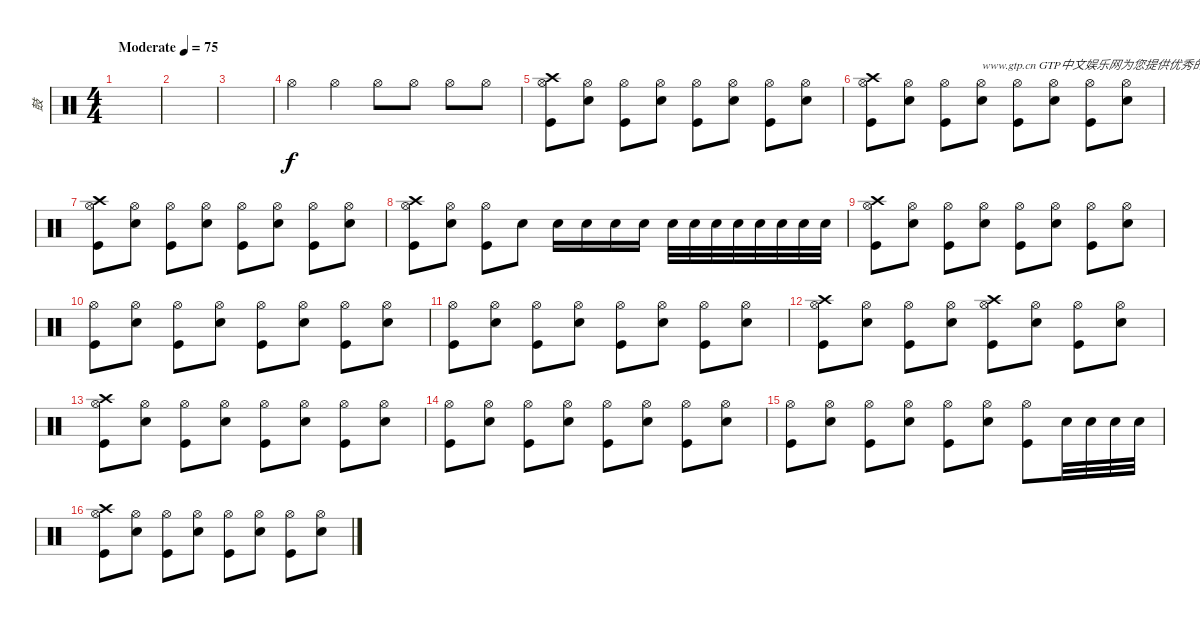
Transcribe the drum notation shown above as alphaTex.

\track ("鼓" "鼓") {instrument percussion}
\staff {score}
\articulation defaults
\ts (4 4)
\tempo (75 "Moderate")
\clef neutral
\ks c
|
|
|
"Hi-Hat (open)".4 "Hi-Hat (open)".4 "Hi-Hat (open)".8 "Hi-Hat (open)".8 "Hi-Hat (open)".8 "Hi-Hat (open)".8 |
("Crash high (hit)" "Hi-Hat (open)" "Kick (hit)").8 ("Hi-Hat (open)" "Electric Snare (hit)").8 ("Hi-Hat (open)" "Kick (hit)").8 ("Hi-Hat (open)" "Electric Snare (hit)").8 ("Hi-Hat (open)" "Kick (hit)").8 ("Hi-Hat (open)" "Electric Snare (hit)").8 ("Hi-Hat (open)" "Kick (hit)").8 ("Hi-Hat (open)" "Electric Snare (hit)").8 |
("Crash high (hit)" "Hi-Hat (open)" "Kick (hit)").8 ("Hi-Hat (open)" "Electric Snare (hit)").8 ("Hi-Hat (open)" "Kick (hit)").8 ("Hi-Hat (open)" "Electric Snare (hit)").8{txt "www.gtp.cn GTP中文娱乐网为您提供优秀的谱子"} ("Hi-Hat (open)" "Kick (hit)").8 ("Hi-Hat (open)" "Electric Snare (hit)").8 ("Hi-Hat (open)" "Kick (hit)").8 ("Hi-Hat (open)" "Electric Snare (hit)").8 |
("Crash high (hit)" "Hi-Hat (open)" "Kick (hit)").8 ("Hi-Hat (open)" "Electric Snare (hit)").8 ("Hi-Hat (open)" "Kick (hit)").8 ("Hi-Hat (open)" "Electric Snare (hit)").8 ("Hi-Hat (open)" "Kick (hit)").8 ("Hi-Hat (open)" "Electric Snare (hit)").8 ("Hi-Hat (open)" "Kick (hit)").8 ("Hi-Hat (open)" "Electric Snare (hit)").8 |
("Crash high (hit)" "Hi-Hat (open)" "Kick (hit)").8 ("Hi-Hat (open)" "Electric Snare (hit)").8 ("Hi-Hat (open)" "Kick (hit)").8 "Electric Snare (hit)".8 "Electric Snare (hit)".16 "Electric Snare (hit)".16 "Electric Snare (hit)".16 "Electric Snare (hit)".16 "Electric Snare (hit)".32 "Electric Snare (hit)".32 "Electric Snare (hit)".32 "Electric Snare (hit)".32 "Electric Snare (hit)".32 "Electric Snare (hit)".32 "Electric Snare (hit)".32 "Electric Snare (hit)".32 |
("Crash high (hit)" "Hi-Hat (open)" "Kick (hit)").8 ("Hi-Hat (open)" "Electric Snare (hit)").8 ("Hi-Hat (open)" "Kick (hit)").8 ("Hi-Hat (open)" "Electric Snare (hit)").8 ("Hi-Hat (open)" "Kick (hit)").8 ("Hi-Hat (open)" "Electric Snare (hit)").8 ("Hi-Hat (open)" "Kick (hit)").8 ("Hi-Hat (open)" "Electric Snare (hit)").8 |
("Hi-Hat (open)" "Kick (hit)").8 ("Hi-Hat (open)" "Electric Snare (hit)").8 ("Hi-Hat (open)" "Kick (hit)").8 ("Hi-Hat (open)" "Electric Snare (hit)").8 ("Hi-Hat (open)" "Kick (hit)").8 ("Hi-Hat (open)" "Electric Snare (hit)").8 ("Hi-Hat (open)" "Kick (hit)").8 ("Hi-Hat (open)" "Electric Snare (hit)").8 |
("Hi-Hat (open)" "Kick (hit)").8 ("Hi-Hat (open)" "Electric Snare (hit)").8 ("Hi-Hat (open)" "Kick (hit)").8 ("Hi-Hat (open)" "Electric Snare (hit)").8 ("Hi-Hat (open)" "Kick (hit)").8 ("Hi-Hat (open)" "Electric Snare (hit)").8 ("Hi-Hat (open)" "Kick (hit)").8 ("Hi-Hat (open)" "Electric Snare (hit)").8 |
("Crash high (hit)" "Hi-Hat (open)" "Kick (hit)").8 ("Hi-Hat (open)" "Electric Snare (hit)").8 ("Hi-Hat (open)" "Kick (hit)").8 ("Hi-Hat (open)" "Electric Snare (hit)").8 ("Crash high (hit)" "Hi-Hat (open)" "Kick (hit)").8 ("Hi-Hat (open)" "Electric Snare (hit)").8 ("Hi-Hat (open)" "Kick (hit)").8 ("Hi-Hat (open)" "Electric Snare (hit)").8 |
("Crash high (hit)" "Hi-Hat (open)" "Kick (hit)").8 ("Hi-Hat (open)" "Electric Snare (hit)").8 ("Hi-Hat (open)" "Kick (hit)").8 ("Hi-Hat (open)" "Electric Snare (hit)").8 ("Hi-Hat (open)" "Kick (hit)").8 ("Hi-Hat (open)" "Electric Snare (hit)").8 ("Hi-Hat (open)" "Kick (hit)").8 ("Hi-Hat (open)" "Electric Snare (hit)").8 |
("Hi-Hat (open)" "Kick (hit)").8 ("Hi-Hat (open)" "Electric Snare (hit)").8 ("Hi-Hat (open)" "Kick (hit)").8 ("Hi-Hat (open)" "Electric Snare (hit)").8 ("Hi-Hat (open)" "Kick (hit)").8 ("Hi-Hat (open)" "Electric Snare (hit)").8 ("Hi-Hat (open)" "Kick (hit)").8 ("Hi-Hat (open)" "Electric Snare (hit)").8 |
("Hi-Hat (open)" "Kick (hit)").8 ("Hi-Hat (open)" "Electric Snare (hit)").8 ("Hi-Hat (open)" "Kick (hit)").8 ("Hi-Hat (open)" "Electric Snare (hit)").8 ("Hi-Hat (open)" "Kick (hit)").8 ("Hi-Hat (open)" "Electric Snare (hit)").8 ("Hi-Hat (open)" "Kick (hit)").8 "Electric Snare (hit)".32 "Electric Snare (hit)".32 "Electric Snare (hit)".32 "Electric Snare (hit)".32 |
("Crash high (hit)" "Hi-Hat (open)" "Kick (hit)").8 ("Hi-Hat (open)" "Electric Snare (hit)").8 ("Hi-Hat (open)" "Kick (hit)").8 ("Hi-Hat (open)" "Electric Snare (hit)").8 ("Hi-Hat (open)" "Kick (hit)").8 ("Hi-Hat (open)" "Electric Snare (hit)").8 ("Hi-Hat (open)" "Kick (hit)").8 ("Hi-Hat (open)" "Electric Snare (hit)").8
